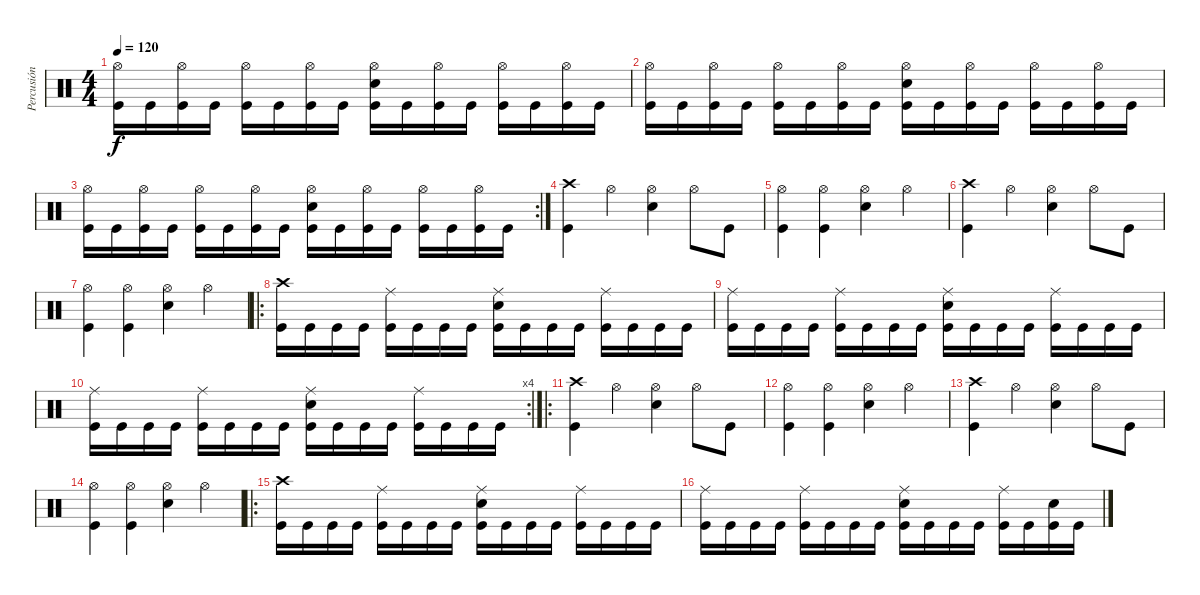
\track ("Percusión" "Percusión") {instrument percussion}
\staff {score}
\articulation defaults
\ts (4 4)
\tempo 120
\clef neutral
\ks c
("Hi-Hat (open)" "Kick (hit)").16{dy f} "Kick (hit)".16 ("Kick (hit)" "Hi-Hat (open)").16 "Kick (hit)".16 ("Kick (hit)" "Hi-Hat (open)").16 "Kick (hit)".16 ("Kick (hit)" "Hi-Hat (open)").16 "Kick (hit)".16 ("Electric Snare (hit)" "Kick (hit)" "Hi-Hat (open)").16 "Kick (hit)".16 ("Kick (hit)" "Hi-Hat (open)").16 "Kick (hit)".16 ("Kick (hit)" "Hi-Hat (open)").16 "Kick (hit)".16 ("Kick (hit)" "Hi-Hat (open)").16 "Kick (hit)".16 |
("Hi-Hat (open)" "Kick (hit)").16 "Kick (hit)".16 ("Kick (hit)" "Hi-Hat (open)").16 "Kick (hit)".16 ("Kick (hit)" "Hi-Hat (open)").16 "Kick (hit)".16 ("Kick (hit)" "Hi-Hat (open)").16 "Kick (hit)".16 ("Electric Snare (hit)" "Kick (hit)" "Hi-Hat (open)").16 "Kick (hit)".16 ("Kick (hit)" "Hi-Hat (open)").16 "Kick (hit)".16 ("Kick (hit)" "Hi-Hat (open)").16 "Kick (hit)".16 ("Kick (hit)" "Hi-Hat (open)").16 "Kick (hit)".16 |
\rc 2
("Hi-Hat (open)" "Kick (hit)").16 "Kick (hit)".16 ("Kick (hit)" "Hi-Hat (open)").16 "Kick (hit)".16 ("Kick (hit)" "Hi-Hat (open)").16 "Kick (hit)".16 ("Kick (hit)" "Hi-Hat (open)").16 "Kick (hit)".16 ("Electric Snare (hit)" "Kick (hit)" "Hi-Hat (open)").16 "Kick (hit)".16 ("Kick (hit)" "Hi-Hat (open)").16 "Kick (hit)".16 ("Kick (hit)" "Hi-Hat (open)").16 "Kick (hit)".16 ("Kick (hit)" "Hi-Hat (open)").16 "Kick (hit)".16 |
("Crash high (hit)" "Kick (hit)").4 "Hi-Hat (open)".4 ("Electric Snare (hit)" "Hi-Hat (open)").4 "Hi-Hat (open)".8 "Kick (hit)".8 |
("Kick (hit)" "Hi-Hat (open)").4 ("Kick (hit)" "Hi-Hat (open)").4 ("Electric Snare (hit)" "Hi-Hat (open)").4 "Hi-Hat (open)".4 |
("Crash high (hit)" "Kick (hit)").4 "Hi-Hat (open)".4 ("Electric Snare (hit)" "Hi-Hat (open)").4 "Hi-Hat (open)".8 "Kick (hit)".8 |
("Kick (hit)" "Hi-Hat (open)").4 ("Kick (hit)" "Hi-Hat (open)").4 ("Electric Snare (hit)" "Hi-Hat (open)").4 "Hi-Hat (open)".4 |
\ro
("Crash high (hit)" "Kick (hit)").16 "Kick (hit)".16 "Kick (hit)".16 "Kick (hit)".16 ("Kick (hit)" "Ride (middle)").16 "Kick (hit)".16 "Kick (hit)".16 "Kick (hit)".16 ("Electric Snare (hit)" "Kick (hit)" "Ride (middle)").16 "Kick (hit)".16 "Kick (hit)".16 "Kick (hit)".16 ("Kick (hit)" "Ride (middle)").16 "Kick (hit)".16 "Kick (hit)".16 "Kick (hit)".16 |
("Ride (middle)" "Kick (hit)").16 "Kick (hit)".16 "Kick (hit)".16 "Kick (hit)".16 ("Kick (hit)" "Ride (middle)").16 "Kick (hit)".16 "Kick (hit)".16 "Kick (hit)".16 ("Electric Snare (hit)" "Kick (hit)" "Ride (middle)").16 "Kick (hit)".16 "Kick (hit)".16 "Kick (hit)".16 ("Kick (hit)" "Ride (middle)").16 "Kick (hit)".16 "Kick (hit)".16 "Kick (hit)".16 |
\rc 4
("Ride (middle)" "Kick (hit)").16 "Kick (hit)".16 "Kick (hit)".16 "Kick (hit)".16 ("Kick (hit)" "Ride (middle)").16 "Kick (hit)".16 "Kick (hit)".16 "Kick (hit)".16 ("Electric Snare (hit)" "Kick (hit)" "Ride (middle)").16 "Kick (hit)".16 "Kick (hit)".16 "Kick (hit)".16 ("Kick (hit)" "Ride (middle)").16 "Kick (hit)".16 "Kick (hit)".16 "Kick (hit)".16 |
\ro
("Crash high (hit)" "Kick (hit)").4 "Hi-Hat (open)".4 ("Electric Snare (hit)" "Hi-Hat (open)").4 "Hi-Hat (open)".8 "Kick (hit)".8 |
("Kick (hit)" "Hi-Hat (open)").4 ("Kick (hit)" "Hi-Hat (open)").4 ("Electric Snare (hit)" "Hi-Hat (open)").4 "Hi-Hat (open)".4 |
("Crash high (hit)" "Kick (hit)").4 "Hi-Hat (open)".4 ("Electric Snare (hit)" "Hi-Hat (open)").4 "Hi-Hat (open)".8 "Kick (hit)".8 |
("Kick (hit)" "Hi-Hat (open)").4 ("Kick (hit)" "Hi-Hat (open)").4 ("Electric Snare (hit)" "Hi-Hat (open)").4 "Hi-Hat (open)".4 |
\ro
("Crash high (hit)" "Kick (hit)").16 "Kick (hit)".16 "Kick (hit)".16 "Kick (hit)".16 ("Kick (hit)" "Ride (middle)").16 "Kick (hit)".16 "Kick (hit)".16 "Kick (hit)".16 ("Electric Snare (hit)" "Kick (hit)" "Ride (middle)").16 "Kick (hit)".16 "Kick (hit)".16 "Kick (hit)".16 ("Kick (hit)" "Ride (middle)").16 "Kick (hit)".16 "Kick (hit)".16 "Kick (hit)".16 |
("Ride (middle)" "Kick (hit)").16 "Kick (hit)".16 "Kick (hit)".16 "Kick (hit)".16 ("Kick (hit)" "Ride (middle)").16 "Kick (hit)".16 "Kick (hit)".16 "Kick (hit)".16 ("Electric Snare (hit)" "Kick (hit)" "Ride (middle)").16 "Kick (hit)".16 "Kick (hit)".16 "Kick (hit)".16 ("Kick (hit)" "Ride (middle)").16 "Kick (hit)".16 ("Kick (hit)" "Electric Snare (hit)").16 "Kick (hit)".16
